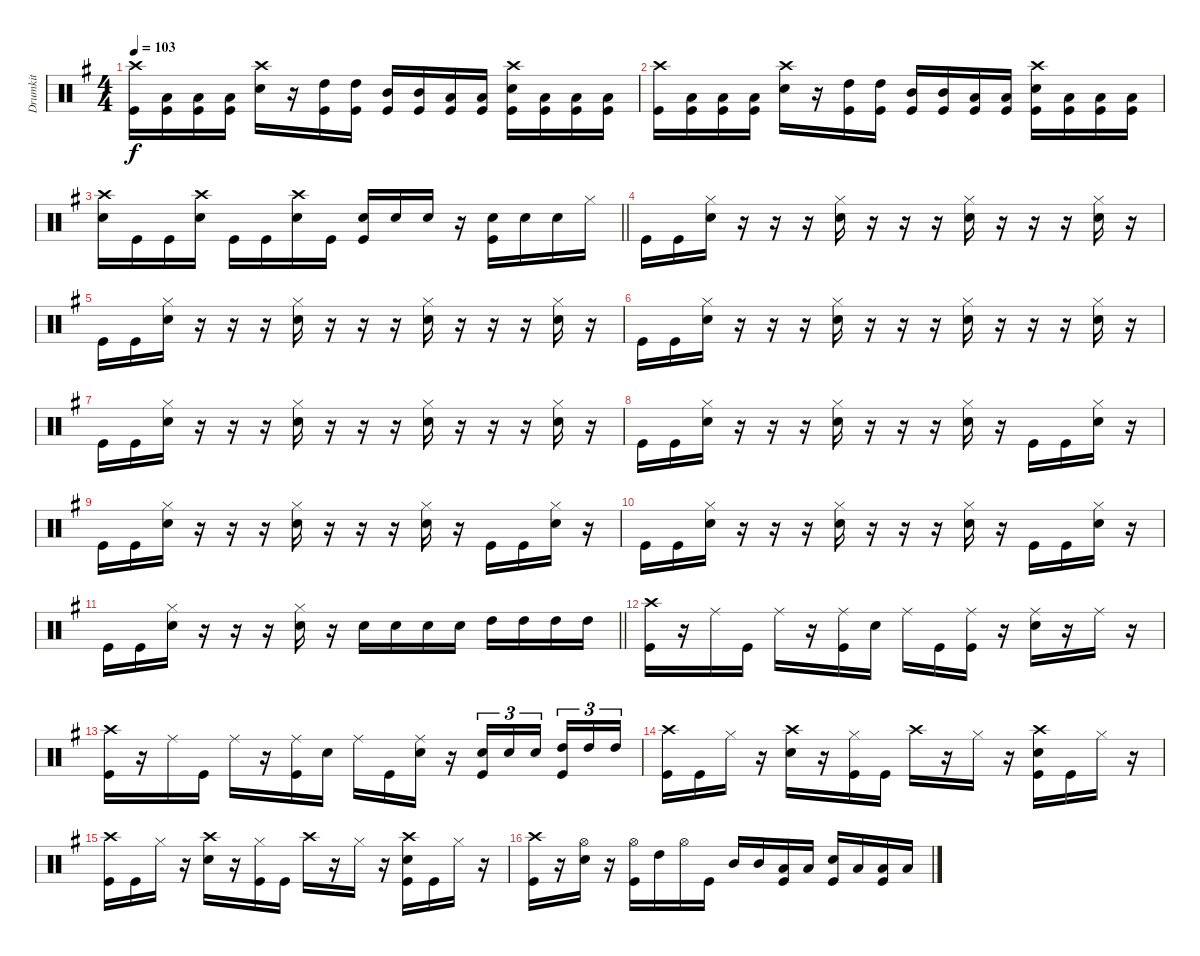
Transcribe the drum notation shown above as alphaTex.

\track ("Drumkit" "Drumkit") {instrument percussion}
\staff {score}
\articulation defaults
\ts (4 4)
\tempo 103
\clef neutral
\ks eminor
("Crash high (hit)" "Kick (hit)").16{dy f} ("Low Tom (hit)" "Kick (hit)").16 ("Low Tom (hit)" "Kick (hit)").16 ("Low Tom (hit)" "Kick (hit)").16 ("Crash high (hit)" "Snare (hit) 2").16 r.16 ("High Tom (hit)" "Kick (hit)").16 ("High Tom (hit)" "Kick (hit)").16 ("Mid Tom (hit)" "Kick (hit)").16 ("Mid Tom (hit)" "Kick (hit)").16 ("Low Tom (hit)" "Kick (hit)").16 ("Low Tom (hit)" "Kick (hit)").16 ("Crash high (hit)" "Snare (hit) 2" "Kick (hit)").16 ("Low Tom (hit)" "Kick (hit)").16 ("Low Tom (hit)" "Kick (hit)").16 ("Low Tom (hit)" "Kick (hit)").16 |
("Crash high (hit)" "Kick (hit)").16 ("Low Tom (hit)" "Kick (hit)").16 ("Low Tom (hit)" "Kick (hit)").16 ("Low Tom (hit)" "Kick (hit)").16 ("Crash high (hit)" "Snare (hit) 2").16 r.16 ("High Tom (hit)" "Kick (hit)").16 ("High Tom (hit)" "Kick (hit)").16 ("Mid Tom (hit)" "Kick (hit)").16 ("Mid Tom (hit)" "Kick (hit)").16 ("Low Tom (hit)" "Kick (hit)").16 ("Low Tom (hit)" "Kick (hit)").16 ("Crash high (hit)" "Snare (hit) 2" "Kick (hit)").16 ("Low Tom (hit)" "Kick (hit)").16 ("Low Tom (hit)" "Kick (hit)").16 ("Low Tom (hit)" "Kick (hit)").16 |
\barLineRight lightlight
("Crash high (hit)" "Snare (hit) 2").16 "Kick (hit)".16 "Kick (hit)".16 ("Crash high (hit)" "Snare (hit) 2").16 "Kick (hit)".16 "Kick (hit)".16 ("Crash high (hit)" "Snare (hit) 2").16 "Kick (hit)".16 ("Snare (hit) 2" "Kick (hit)").16 "Snare (hit) 2".16 "Snare (hit) 2".16 r.16 ("Snare (hit) 2" "Kick (hit)").16 "Snare (hit) 2".16 "Snare (hit) 2".16 "Hi-Hat (closed)".16 |
"Kick (hit)".16 "Kick (hit)".16 ("Hi-Hat (closed)" "Snare (hit) 2").16 r.16 r.16 r.16 ("Hi-Hat (closed)" "Snare (hit) 2").16 r.16 r.16 r.16 ("Hi-Hat (closed)" "Snare (hit) 2").16 r.16 r.16 r.16 ("Hi-Hat (closed)" "Snare (hit) 2").16 r.16 |
"Kick (hit)".16 "Kick (hit)".16 ("Hi-Hat (closed)" "Snare (hit) 2").16 r.16 r.16 r.16 ("Hi-Hat (closed)" "Snare (hit) 2").16 r.16 r.16 r.16 ("Hi-Hat (closed)" "Snare (hit) 2").16 r.16 r.16 r.16 ("Hi-Hat (closed)" "Snare (hit) 2").16 r.16 |
"Kick (hit)".16 "Kick (hit)".16 ("Hi-Hat (closed)" "Snare (hit) 2").16 r.16 r.16 r.16 ("Hi-Hat (closed)" "Snare (hit) 2").16 r.16 r.16 r.16 ("Hi-Hat (closed)" "Snare (hit) 2").16 r.16 r.16 r.16 ("Hi-Hat (closed)" "Snare (hit) 2").16 r.16 |
"Kick (hit)".16 "Kick (hit)".16 ("Hi-Hat (closed)" "Snare (hit) 2").16 r.16 r.16 r.16 ("Hi-Hat (closed)" "Snare (hit) 2").16 r.16 r.16 r.16 ("Hi-Hat (closed)" "Snare (hit) 2").16 r.16 r.16 r.16 ("Hi-Hat (closed)" "Snare (hit) 2").16 r.16 |
"Kick (hit)".16 "Kick (hit)".16 ("Hi-Hat (closed)" "Snare (hit) 2").16 r.16 r.16 r.16 ("Hi-Hat (closed)" "Snare (hit) 2").16 r.16 r.16 r.16 ("Hi-Hat (closed)" "Snare (hit) 2").16 r.16 "Kick (hit)".16 "Kick (hit)".16 ("Hi-Hat (closed)" "Snare (hit) 2").16 r.16 |
"Kick (hit)".16 "Kick (hit)".16 ("Hi-Hat (closed)" "Snare (hit) 2").16 r.16 r.16 r.16 ("Hi-Hat (closed)" "Snare (hit) 2").16 r.16 r.16 r.16 ("Hi-Hat (closed)" "Snare (hit) 2").16 r.16 "Kick (hit)".16 "Kick (hit)".16 ("Hi-Hat (closed)" "Snare (hit) 2").16 r.16 |
"Kick (hit)".16 "Kick (hit)".16 ("Hi-Hat (closed)" "Snare (hit) 2").16 r.16 r.16 r.16 ("Hi-Hat (closed)" "Snare (hit) 2").16 r.16 r.16 r.16 ("Hi-Hat (closed)" "Snare (hit) 2").16 r.16 "Kick (hit)".16 "Kick (hit)".16 ("Hi-Hat (closed)" "Snare (hit) 2").16 r.16 |
\barLineRight lightlight "Kick (hit)".16 "Kick (hit)".16
("Hi-Hat (closed)" "Snare (hit) 2").16 r.16 r.16 r.16 ("Hi-Hat (closed)" "Snare (hit) 2").16 r.16 "Snare (hit) 2".16 "Snare (hit) 2".16 "Snare (hit) 2".16 "Snare (hit) 2".16 "High Tom (hit)".16 "High Tom (hit)".16 "High Tom (hit)".16 "High Tom (hit)".16 |
("Crash high (hit)" "Kick (hit)").16 r.16 "Ride (middle)".16 "Kick (hit)".16 "Ride (middle)".16 r.16 ("Ride (middle)" "Kick (hit)").16 "Snare (hit) 2".16 "Ride (middle)".16 "Kick (hit)".16 ("Ride (middle)" "Kick (hit)").16 r.16 ("Ride (middle)" "Snare (hit) 2").16 r.16 "Ride (middle)".16 r.16 |
("Crash high (hit)" "Kick (hit)").16 r.16 "Ride (middle)".16 "Kick (hit)".16 "Ride (middle)".16 r.16 ("Ride (middle)" "Kick (hit)").16 "Snare (hit) 2".16 "Ride (middle)".16 "Kick (hit)".16 ("Ride (middle)" "Snare (hit) 2").16 r.16 ("Snare (hit) 2" "Kick (hit)").16{tu (3 2)} "Snare (hit) 2".16{tu (3 2)} "Snare (hit) 2".16{tu (3 2)} ("High Tom (hit)" "Kick (hit)").16{tu (3 2)} "High Tom (hit)".16{tu (3 2)} "High Tom (hit)".16{tu (3 2)} |
("Crash high (hit)" "Kick (hit)").16 "Kick (hit)".16 "Hi-Hat (closed)".16 r.16 ("Crash high (hit)" "Snare (hit) 2").16 r.16 ("Hi-Hat (closed)" "Kick (hit)").16 "Kick (hit)".16 "Crash high (hit)".16 r.16 "Hi-Hat (closed)".16 r.16 ("Crash high (hit)" "Snare (hit) 2" "Kick (hit)").16 "Kick (hit)".16 "Hi-Hat (closed)".16 r.16 |
("Crash high (hit)" "Kick (hit)").16 "Kick (hit)".16 "Hi-Hat (closed)".16 r.16 ("Crash high (hit)" "Snare (hit) 2").16 r.16 ("Hi-Hat (closed)" "Kick (hit)").16 "Kick (hit)".16 "Crash high (hit)".16 r.16 "Hi-Hat (closed)".16 r.16 ("Crash high (hit)" "Snare (hit) 2" "Kick (hit)").16 "Kick (hit)".16 "Hi-Hat (closed)".16 r.16 |
("Crash high (hit)" "Kick (hit)").16 r.16 ("Hi-Hat (open)" "Snare (hit) 2").16 r.16 ("Hi-Hat (open)" "Kick (hit)").16 "High Tom (hit)".16 "Hi-Hat (open)".16 "Kick (hit)".16 "Mid Tom (hit)".16 "Mid Tom (hit)".16 ("Low Tom (hit)" "Kick (hit)").16 "Low Tom (hit)".16 ("Snare (hit) 2" "Kick (hit)").16 "Low Tom (hit)".16 ("Low Tom (hit)" "Kick (hit)").16 "Low Tom (hit)".16
